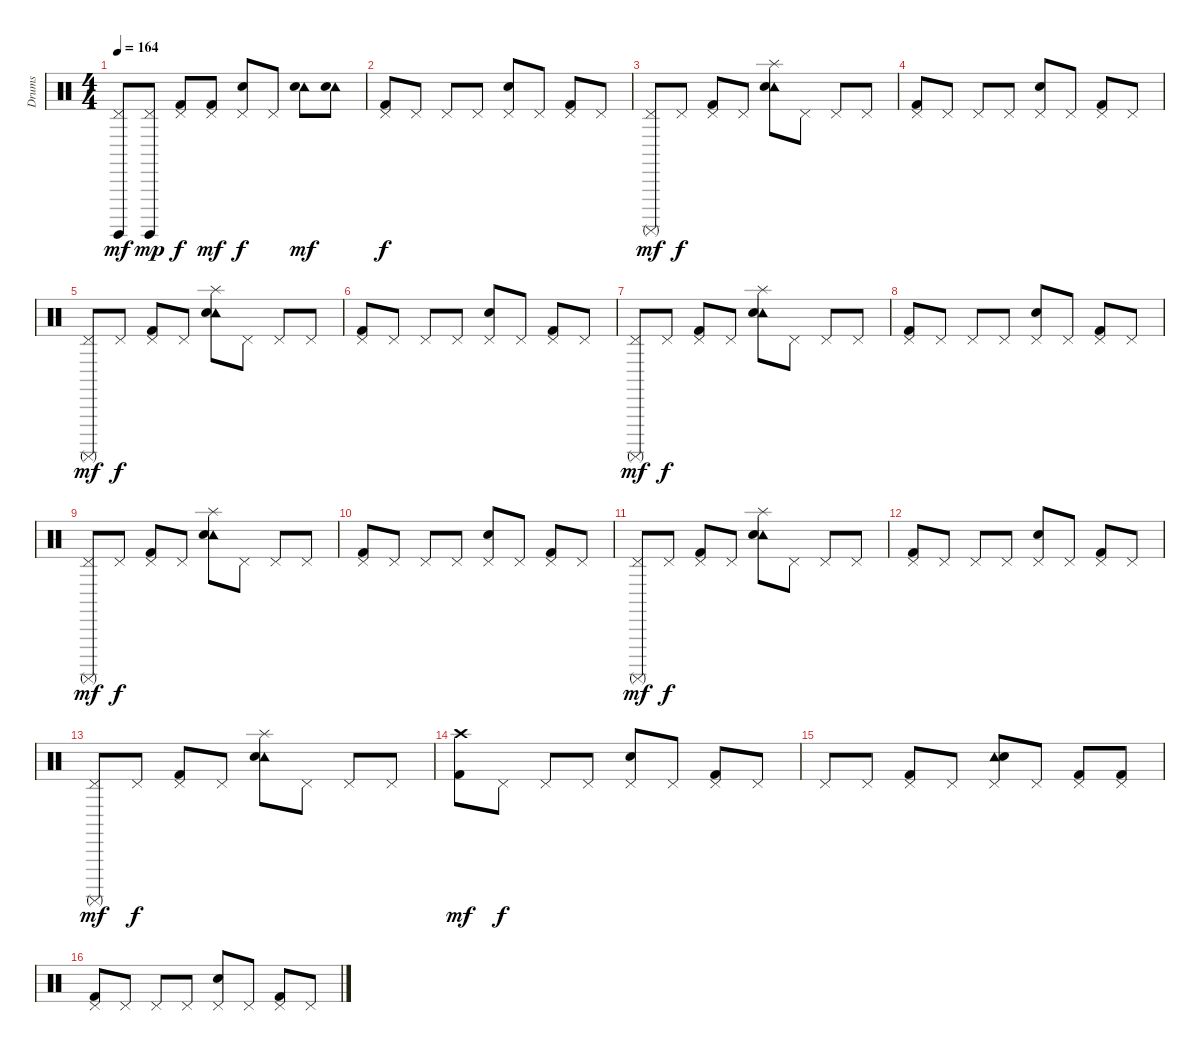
\track ("Drums" "Drums") {instrument percussion}
\staff {score}
\articulation defaults
\ts (4 4)
\tempo 164
\clef neutral
\ks c
("Pedal Hi-Hat (hit)" "Surdo (hit)").8{dy mf} ("Pedal Hi-Hat (hit)" "Surdo (hit)").8{dy mp} ("Pedal Hi-Hat (hit)" "Kick (hit) 2").8{dy f} ("Pedal Hi-Hat (hit)" "Kick (hit) 2").8{dy mf} ("Pedal Hi-Hat (hit)" "Snare (hit) 2").8{dy f} "Pedal Hi-Hat (hit)".8 ("Tambourine (hit)" "Snare (hit) 2").8{dy mf} ("Tambourine (hit)" "Snare (hit) 2").8 |
("Pedal Hi-Hat (hit)" "Kick (hit) 2").8{dy f} "Pedal Hi-Hat (hit)".8 "Pedal Hi-Hat (hit)".8 "Pedal Hi-Hat (hit)".8 ("Pedal Hi-Hat (hit)" "Snare (hit) 2").8 "Pedal Hi-Hat (hit)".8 ("Pedal Hi-Hat (hit)" "Kick (hit) 2").8 "Pedal Hi-Hat (hit)".8 |
("Pedal Hi-Hat (hit)" "Surdo (mute)").8{dy mf} "Pedal Hi-Hat (hit)".8{dy f} ("Pedal Hi-Hat (hit)" "Kick (hit) 2").8 "Pedal Hi-Hat (hit)".8 ("Tambourine (hit)" "Splash (hit)" "Snare (hit) 2").8 "Pedal Hi-Hat (hit)".8 "Pedal Hi-Hat (hit)".8 "Pedal Hi-Hat (hit)".8 |
("Pedal Hi-Hat (hit)" "Kick (hit) 2").8 "Pedal Hi-Hat (hit)".8 "Pedal Hi-Hat (hit)".8 "Pedal Hi-Hat (hit)".8 ("Pedal Hi-Hat (hit)" "Snare (hit) 2").8 "Pedal Hi-Hat (hit)".8 ("Pedal Hi-Hat (hit)" "Kick (hit) 2").8 "Pedal Hi-Hat (hit)".8 |
("Pedal Hi-Hat (hit)" "Surdo (mute)").8{dy mf} "Pedal Hi-Hat (hit)".8{dy f} ("Pedal Hi-Hat (hit)" "Kick (hit) 2").8 "Pedal Hi-Hat (hit)".8 ("Tambourine (hit)" "Splash (hit)" "Snare (hit) 2").8 "Pedal Hi-Hat (hit)".8 "Pedal Hi-Hat (hit)".8 "Pedal Hi-Hat (hit)".8 |
("Pedal Hi-Hat (hit)" "Kick (hit) 2").8 "Pedal Hi-Hat (hit)".8 "Pedal Hi-Hat (hit)".8 "Pedal Hi-Hat (hit)".8 ("Pedal Hi-Hat (hit)" "Snare (hit) 2").8 "Pedal Hi-Hat (hit)".8 ("Pedal Hi-Hat (hit)" "Kick (hit) 2").8 "Pedal Hi-Hat (hit)".8 |
("Pedal Hi-Hat (hit)" "Surdo (mute)").8{dy mf} "Pedal Hi-Hat (hit)".8{dy f} ("Pedal Hi-Hat (hit)" "Kick (hit) 2").8 "Pedal Hi-Hat (hit)".8 ("Tambourine (hit)" "Splash (hit)" "Snare (hit) 2").8 "Pedal Hi-Hat (hit)".8 "Pedal Hi-Hat (hit)".8 "Pedal Hi-Hat (hit)".8 |
("Pedal Hi-Hat (hit)" "Kick (hit) 2").8 "Pedal Hi-Hat (hit)".8 "Pedal Hi-Hat (hit)".8 "Pedal Hi-Hat (hit)".8 ("Pedal Hi-Hat (hit)" "Snare (hit) 2").8 "Pedal Hi-Hat (hit)".8 ("Pedal Hi-Hat (hit)" "Kick (hit) 2").8 "Pedal Hi-Hat (hit)".8 |
("Pedal Hi-Hat (hit)" "Surdo (mute)").8{dy mf} "Pedal Hi-Hat (hit)".8{dy f} ("Pedal Hi-Hat (hit)" "Kick (hit) 2").8 "Pedal Hi-Hat (hit)".8 ("Tambourine (hit)" "Splash (hit)" "Snare (hit) 2").8 "Pedal Hi-Hat (hit)".8 "Pedal Hi-Hat (hit)".8 "Pedal Hi-Hat (hit)".8 |
("Pedal Hi-Hat (hit)" "Kick (hit) 2").8 "Pedal Hi-Hat (hit)".8 "Pedal Hi-Hat (hit)".8 "Pedal Hi-Hat (hit)".8 ("Pedal Hi-Hat (hit)" "Snare (hit) 2").8 "Pedal Hi-Hat (hit)".8 ("Pedal Hi-Hat (hit)" "Kick (hit) 2").8 "Pedal Hi-Hat (hit)".8 |
("Pedal Hi-Hat (hit)" "Surdo (mute)").8{dy mf} "Pedal Hi-Hat (hit)".8{dy f} ("Pedal Hi-Hat (hit)" "Kick (hit) 2").8 "Pedal Hi-Hat (hit)".8 ("Tambourine (hit)" "Splash (hit)" "Snare (hit) 2").8 "Pedal Hi-Hat (hit)".8 "Pedal Hi-Hat (hit)".8 "Pedal Hi-Hat (hit)".8 |
("Pedal Hi-Hat (hit)" "Kick (hit) 2").8 "Pedal Hi-Hat (hit)".8 "Pedal Hi-Hat (hit)".8 "Pedal Hi-Hat (hit)".8 ("Pedal Hi-Hat (hit)" "Snare (hit) 2").8 "Pedal Hi-Hat (hit)".8 ("Pedal Hi-Hat (hit)" "Kick (hit) 2").8 "Pedal Hi-Hat (hit)".8 |
("Pedal Hi-Hat (hit)" "Surdo (mute)").8{dy mf} "Pedal Hi-Hat (hit)".8{dy f} ("Pedal Hi-Hat (hit)" "Kick (hit) 2").8 "Pedal Hi-Hat (hit)".8 ("Tambourine (hit)" "Splash (hit)" "Snare (hit) 2").8 "Pedal Hi-Hat (hit)".8 "Pedal Hi-Hat (hit)".8 "Pedal Hi-Hat (hit)".8 |
("Crash high (hit)" "Kick (hit) 2").8{dy mf} "Pedal Hi-Hat (hit)".8{dy f} "Pedal Hi-Hat (hit)".8 "Pedal Hi-Hat (hit)".8 ("Pedal Hi-Hat (hit)" "Snare (hit) 2").8 "Pedal Hi-Hat (hit)".8 ("Pedal Hi-Hat (hit)" "Kick (hit) 2").8 "Pedal Hi-Hat (hit)".8 |
"Pedal Hi-Hat (hit)".8 "Pedal Hi-Hat (hit)".8 ("Pedal Hi-Hat (hit)" "Kick (hit) 2").8 "Pedal Hi-Hat (hit)".8 ("Tambourine (hit)" "Pedal Hi-Hat (hit)" "Snare (hit) 2").8 "Pedal Hi-Hat (hit)".8 ("Pedal Hi-Hat (hit)" "Kick (hit) 2").8 ("Pedal Hi-Hat (hit)" "Kick (hit) 2").8 |
("Pedal Hi-Hat (hit)" "Kick (hit) 2").8 "Pedal Hi-Hat (hit)".8 "Pedal Hi-Hat (hit)".8 "Pedal Hi-Hat (hit)".8 ("Pedal Hi-Hat (hit)" "Snare (hit) 2").8 "Pedal Hi-Hat (hit)".8 ("Pedal Hi-Hat (hit)" "Kick (hit) 2").8 "Pedal Hi-Hat (hit)".8
